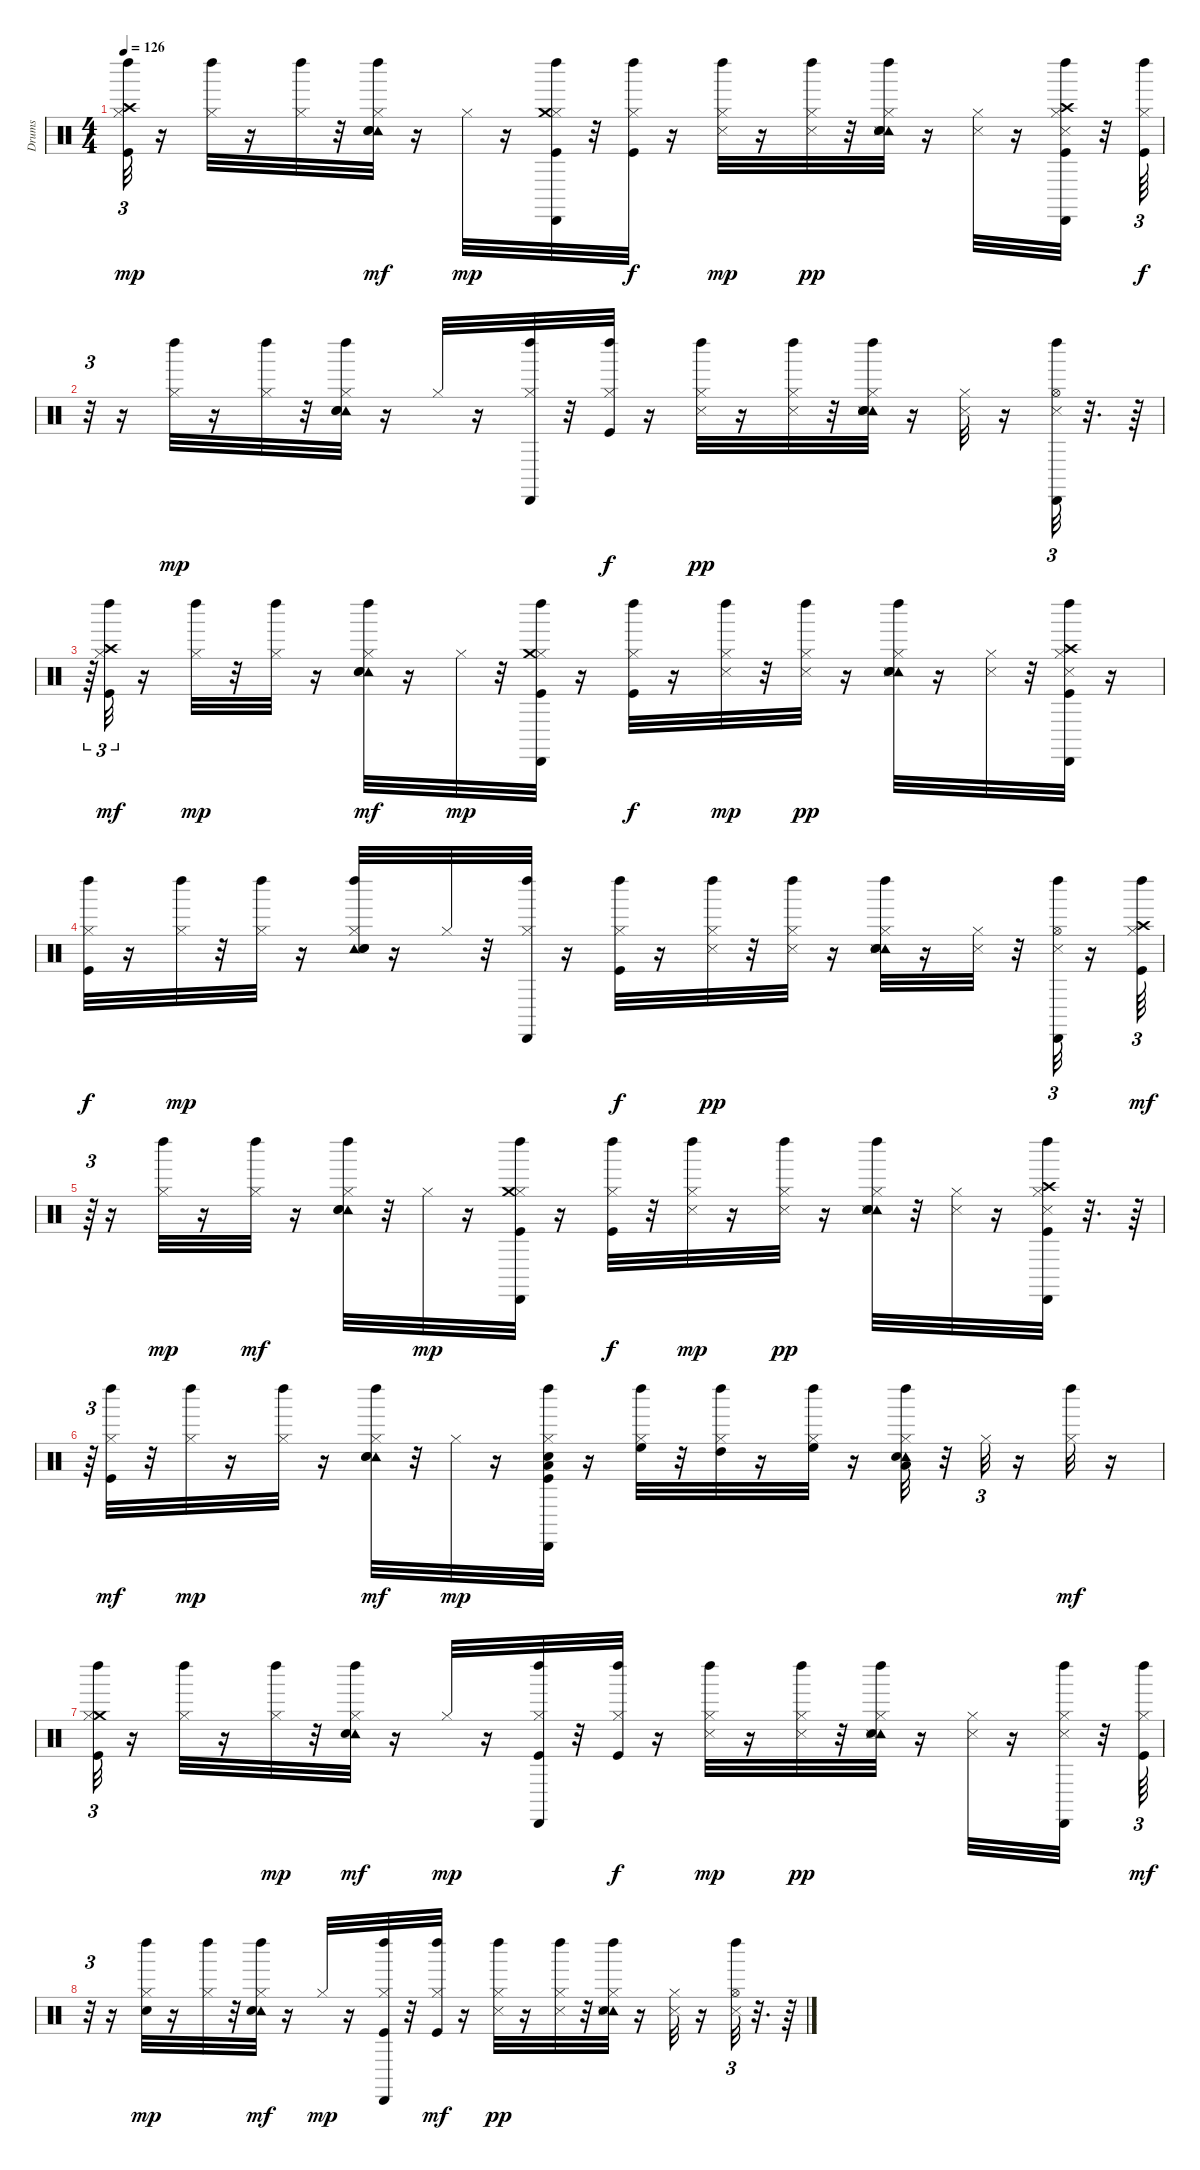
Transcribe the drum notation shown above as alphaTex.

\track ("Drums" "Drums") {instrument percussion}
\staff {score}
\articulation defaults
\ts (4 4)
\tempo 126
\clef neutral
\ks c
("Kick (hit)" "Hi-Hat (closed)" "Crash high (hit)" "Left Maraca (hit)").32{tu (3 2) dy mp} r.16 ("Hi-Hat (closed)" "Left Maraca (hit)").32 r.16 ("Hi-Hat (closed)" "Left Maraca (hit)").32 r.32 ("Hi-Hat (closed)" "Tambourine (hit)" "Snare (hit) 2" "Left Maraca (hit)" "Hand Clap (hit)").32{dy mf} r.16 "Hi-Hat (closed)".32{dy mp} r.16 ("Cabasa (hit)" "Kick (hit)" "Hi-Hat (closed)" "Crash medium (hit)" "Left Maraca (hit)").32 r.32 ("Hi-Hat (closed)" "Kick (hit)" "Left Maraca (hit)").32{dy f} r.16 ("Hi-Hat (closed)" "Snare (side stick) 3" "Left Maraca (hit)").32{dy mp} r.16 ("Hi-Hat (closed)" "Left Maraca (hit)" "Snare (side stick) 3").32{dy pp} r.32 ("Hi-Hat (closed)" "Tambourine (hit)" "Hand Clap (hit)" "Snare (hit) 2" "Snare (side stick) 3" "Left Maraca (hit)").32 r.16 ("Hi-Hat (closed)" "Snare (side stick) 3").32 r.16 ("Cabasa (hit)" "Crash high (hit)" "Hi-Hat (closed)" "Kick (hit)" "Snare (side stick) 3" "Left Maraca (hit)").32 r.32 ("Left Maraca (hit)" "Kick (hit)" "Hi-Hat (closed)").64{tu (3 2) dy f} |
r.32{tu (3 2)} r.16 ("Left Maraca (hit)" "Hi-Hat (closed)").32{dy mp} r.16 ("Left Maraca (hit)" "Hi-Hat (closed)").32 r.32 ("Left Maraca (hit)" "Tambourine (hit)" "Snare (hit) 2" "Hi-Hat (closed)" "Hand Clap (hit)").32 r.16 "Hi-Hat (closed)".32 r.16 ("Hi-Hat (closed)" "Left Maraca (hit)" "Cabasa (hit)").32 r.32 ("Kick (hit)" "Hi-Hat (closed)" "Left Maraca (hit)").32{dy f} r.16 ("Hi-Hat (closed)" "Left Maraca (hit)" "Snare (side stick) 3").32{dy pp} r.16 ("Hi-Hat (closed)" "Left Maraca (hit)" "Snare (side stick) 3").32 r.32 ("Hi-Hat (closed)" "Tambourine (hit)" "Hand Clap (hit)" "Snare (hit) 2" "Snare (side stick) 3" "Left Maraca (hit)").32 r.16 ("Hi-Hat (closed)" "Snare (side stick) 3").32 r.16 ("Hi-Hat (open)" "Cabasa (hit)" "Snare (side stick) 3" "Left Maraca (hit)").32{tu (3 2)} r.32{d} r.64 |
r.64{tu (3 2)} ("Kick (hit)" "Hi-Hat (closed)" "Crash high (hit)" "Left Maraca (hit)").32{tu (3 2) dy mf} r.16 ("Hi-Hat (closed)" "Left Maraca (hit)").32{dy mp} r.32 ("Hi-Hat (closed)" "Left Maraca (hit)").32 r.16 ("Hi-Hat (closed)" "Tambourine (hit)" "Snare (hit) 2" "Left Maraca (hit)" "Hand Clap (hit)").32{dy mf} r.16 "Hi-Hat (closed)".32{dy mp} r.32 ("Cabasa (hit)" "Kick (hit)" "Hi-Hat (closed)" "Crash medium (hit)" "Left Maraca (hit)").32 r.16 ("Hi-Hat (closed)" "Kick (hit)" "Left Maraca (hit)").32{dy f} r.16 ("Hi-Hat (closed)" "Snare (side stick) 3" "Left Maraca (hit)").32{dy mp} r.32 ("Hi-Hat (closed)" "Left Maraca (hit)" "Snare (side stick) 3").32{dy pp} r.16 ("Hi-Hat (closed)" "Tambourine (hit)" "Hand Clap (hit)" "Snare (hit) 2" "Snare (side stick) 3" "Left Maraca (hit)").32 r.16 ("Hi-Hat (closed)" "Snare (side stick) 3").32 r.32 ("Cabasa (hit)" "Crash high (hit)" "Hi-Hat (closed)" "Kick (hit)" "Snare (side stick) 3" "Left Maraca (hit)").32 r.16 |
("Left Maraca (hit)" "Kick (hit)" "Hi-Hat (closed)").32{dy f} r.16 ("Left Maraca (hit)" "Hi-Hat (closed)").32{dy mp} r.32 ("Left Maraca (hit)" "Hi-Hat (closed)").32 r.16 ("Left Maraca (hit)" "Tambourine (hit)" "Snare (hit) 2" "Hi-Hat (closed)" "Hand Clap (hit)").32 r.16 "Hi-Hat (closed)".32 r.32 ("Hi-Hat (closed)" "Left Maraca (hit)" "Cabasa (hit)").32 r.16 ("Kick (hit)" "Hi-Hat (closed)" "Left Maraca (hit)").32{dy f} r.16 ("Hi-Hat (closed)" "Left Maraca (hit)" "Snare (side stick) 3").32{dy pp} r.32 ("Hi-Hat (closed)" "Left Maraca (hit)" "Snare (side stick) 3").32 r.16 ("Hi-Hat (closed)" "Tambourine (hit)" "Hand Clap (hit)" "Snare (hit) 2" "Snare (side stick) 3" "Left Maraca (hit)").32 r.16 ("Hi-Hat (closed)" "Snare (side stick) 3").32 r.32 ("Hi-Hat (open)" "Cabasa (hit)" "Snare (side stick) 3" "Left Maraca (hit)").32{tu (3 2)} r.16 ("Kick (hit)" "Hi-Hat (closed)" "Crash high (hit)" "Left Maraca (hit)").64{tu (3 2) dy mf} |
r.64{tu (3 2)} r.16 ("Hi-Hat (closed)" "Left Maraca (hit)").32{dy mp} r.16 ("Hi-Hat (closed)" "Left Maraca (hit)").32{dy mf} r.16 ("Hi-Hat (closed)" "Tambourine (hit)" "Snare (hit) 2" "Left Maraca (hit)" "Hand Clap (hit)").32 r.32 "Hi-Hat (closed)".32{dy mp} r.16 ("Cabasa (hit)" "Kick (hit)" "Hi-Hat (closed)" "Crash medium (hit)" "Left Maraca (hit)").32 r.16 ("Hi-Hat (closed)" "Kick (hit)" "Left Maraca (hit)").32{dy f} r.32 ("Hi-Hat (closed)" "Snare (side stick) 3" "Left Maraca (hit)").32{dy mp} r.16 ("Hi-Hat (closed)" "Left Maraca (hit)" "Snare (side stick) 3").32{dy pp} r.16 ("Hi-Hat (closed)" "Tambourine (hit)" "Hand Clap (hit)" "Snare (hit) 2" "Snare (side stick) 3" "Left Maraca (hit)").32 r.32 ("Hi-Hat (closed)" "Snare (side stick) 3").32 r.16 ("Cabasa (hit)" "Crash high (hit)" "Hi-Hat (closed)" "Kick (hit)" "Snare (side stick) 3" "Left Maraca (hit)").32 r.32{d} r.64 |
r.64{tu (3 2)} ("Left Maraca (hit)" "Kick (hit)" "Hi-Hat (closed)").32{dy mf} r.32 ("Left Maraca (hit)" "Hi-Hat (closed)").32{dy mp} r.16 ("Left Maraca (hit)" "Hi-Hat (closed)").32 r.16 ("Left Maraca (hit)" "Tambourine (hit)" "Snare (hit) 2" "Hi-Hat (closed)" "Hand Clap (hit)").32{dy mf} r.32 "Hi-Hat (closed)".32{dy mp} r.16 ("Kick (hit)" "Snare (hit) 2" "Hi-Hat (closed)" "Low Tom (hit)" "Left Maraca (hit)" "Cabasa (hit)").32 r.16 ("Hi-Hat (closed)" "High Floor Tom (hit)" "Left Maraca (hit)").32 r.32 ("Hi-Hat (closed)" "Left Maraca (hit)" "High Tom (hit)").32 r.16 ("Hi-Hat (closed)" "Left Maraca (hit)" "High Floor Tom (hit)").32 r.16 ("Hi-Hat (closed)" "Tambourine (hit)" "Hand Clap (hit)" "Low Tom (hit)" "Left Maraca (hit)").32 r.32 "Hi-Hat (closed)".32{tu (3 2)} r.16 ("Hi-Hat (closed)" "Left Maraca (hit)").32{dy mf} r.16 |
("Crash medium (hit)" "Kick (hit)" "Hi-Hat (closed)" "Left Maraca (hit)").32{tu (3 2)} r.16 ("Hi-Hat (closed)" "Left Maraca (hit)").32 r.16 ("Hi-Hat (closed)" "Left Maraca (hit)").32{dy mp} r.32 ("Hi-Hat (closed)" "Tambourine (hit)" "Left Maraca (hit)" "Hand Clap (hit)").32{dy mf} r.16 "Hi-Hat (closed)".32{dy mp} r.16 ("Cabasa (hit)" "Kick (hit)" "Hi-Hat (closed)" "Left Maraca (hit)").32 r.32 ("Hi-Hat (closed)" "Kick (hit)" "Left Maraca (hit)").32{dy f} r.16 ("Hi-Hat (closed)" "Snare (side stick) 3" "Left Maraca (hit)").32{dy mp} r.16 ("Hi-Hat (closed)" "Left Maraca (hit)" "Snare (side stick) 3").32{dy pp} r.32 ("Hi-Hat (closed)" "Tambourine (hit)" "Hand Clap (hit)" "Snare (side stick) 3" "Left Maraca (hit)").32 r.16 ("Hi-Hat (closed)" "Snare (side stick) 3").32 r.16 ("Cabasa (hit)" "Hi-Hat (closed)" "Snare (side stick) 3" "Left Maraca (hit)").32 r.32 ("Left Maraca (hit)" "Kick (hit)" "Hi-Hat (closed)").64{tu (3 2) dy mf} |
r.32{tu (3 2)} r.16 ("Left Maraca (hit)" "Hi-Hat (closed)" "Electric Snare (hit)").32{dy mp} r.16 ("Left Maraca (hit)" "Hi-Hat (closed)").32 r.32 ("Left Maraca (hit)" "Tambourine (hit)" "Hi-Hat (closed)" "Hand Clap (hit)").32{dy mf} r.16 "Hi-Hat (closed)".32{dy mp} r.16 ("Kick (hit)" "Hi-Hat (closed)" "Left Maraca (hit)" "Cabasa (hit)").32 r.32 ("Kick (hit)" "Hi-Hat (closed)" "Left Maraca (hit)").32{dy mf} r.16 ("Hi-Hat (closed)" "Left Maraca (hit)" "Snare (side stick) 3").32{dy pp} r.16 ("Hi-Hat (closed)" "Left Maraca (hit)" "Snare (side stick) 3").32 r.32 ("Hi-Hat (closed)" "Tambourine (hit)" "Hand Clap (hit)" "Snare (side stick) 3" "Left Maraca (hit)").32 r.16 ("Hi-Hat (closed)" "Snare (side stick) 3").32 r.16 ("Hi-Hat (open)" "Snare (side stick) 3" "Left Maraca (hit)").32{tu (3 2)} r.32{d} r.64
